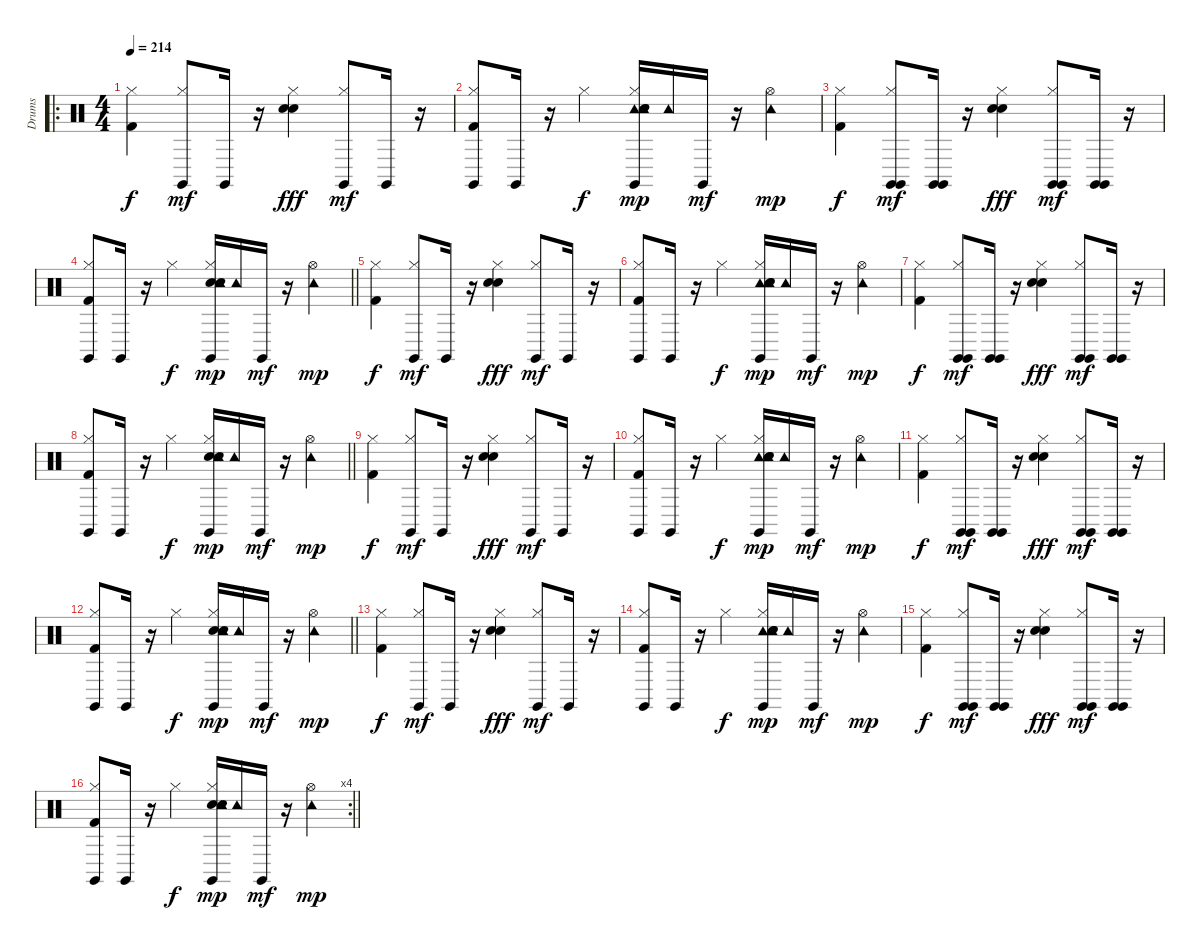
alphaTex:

\track ("Drums" "Drums") {instrument percussion}
\staff {score}
\articulation defaults
\ro
\ts (4 4)
\section ("" "")
\tempo 214
\clef neutral
\ks c
("Hi-Hat (closed)" "Kick (hit) 2").4{dy f} ("Claves (hit)" "Hi-Hat (closed)").8{dy mf} "Claves (hit)".16 r.16 ("Hand Clap (hit)" "Snare (hit) 2" "Hi-Hat (closed)").4{dy fff} ("Hi-Hat (closed)" "Claves (hit)").8{dy mf} "Claves (hit)".16 r.16 |
("Kick (hit) 2" "Claves (hit)" "Hi-Hat (closed)").8 "Claves (hit)".16 r.16 "Hi-Hat (closed)".4{dy f} ("Tambourine (hit)" "Claves (hit)" "Hi-Hat (closed)" "Hand Clap (hit)" "Snare (hit) 2" "Tambourine (hit)").16{dy mp} "Tambourine (hit)".16 "Claves (hit)".16{dy mf} r.16 ("Hi-Hat (open)" "Tambourine (hit)").4{dy mp} |
("Hi-Hat (closed)" "Kick (hit) 2").4{dy f} ("Claves (hit)" "Hi-Hat (closed)" "Claves (hit)").8{dy mf} ("Claves (hit)" "Claves (hit)").16 r.16 ("Hand Clap (hit)" "Hi-Hat (closed)" "Snare (hit) 2").4{dy fff} ("Claves (hit)" "Claves (hit)" "Hi-Hat (closed)").8{dy mf} ("Claves (hit)" "Claves (hit)").16 r.16 |
\barLineRight lightlight
("Hi-Hat (closed)" "Kick (hit) 2" "Claves (hit)").8 "Claves (hit)".16 r.16 "Hi-Hat (closed)".4{dy f} ("Hi-Hat (closed)" "Hand Clap (hit)" "Tambourine (hit)" "Snare (hit) 2" "Claves (hit)" "Tambourine (hit)").16{dy mp} "Tambourine (hit)".16 "Claves (hit)".16{dy mf} r.16 ("Tambourine (hit)" "Hi-Hat (open)").4{dy mp} |
("Hi-Hat (closed)" "Kick (hit) 2").4{dy f} ("Claves (hit)" "Hi-Hat (closed)").8{dy mf} "Claves (hit)".16 r.16 ("Hand Clap (hit)" "Snare (hit) 2" "Hi-Hat (closed)").4{dy fff} ("Hi-Hat (closed)" "Claves (hit)").8{dy mf} "Claves (hit)".16 r.16 |
("Kick (hit) 2" "Claves (hit)" "Hi-Hat (closed)").8 "Claves (hit)".16 r.16 "Hi-Hat (closed)".4{dy f} ("Tambourine (hit)" "Claves (hit)" "Hi-Hat (closed)" "Hand Clap (hit)" "Snare (hit) 2" "Tambourine (hit)").16{dy mp} "Tambourine (hit)".16 "Claves (hit)".16{dy mf} r.16 ("Hi-Hat (open)" "Tambourine (hit)").4{dy mp} |
("Hi-Hat (closed)" "Kick (hit) 2").4{dy f} ("Claves (hit)" "Hi-Hat (closed)" "Claves (hit)").8{dy mf} ("Claves (hit)" "Claves (hit)").16 r.16 ("Hand Clap (hit)" "Hi-Hat (closed)" "Snare (hit) 2").4{dy fff} ("Claves (hit)" "Claves (hit)" "Hi-Hat (closed)").8{dy mf} ("Claves (hit)" "Claves (hit)").16 r.16 |
\barLineRight lightlight
("Hi-Hat (closed)" "Kick (hit) 2" "Claves (hit)").8 "Claves (hit)".16 r.16 "Hi-Hat (closed)".4{dy f} ("Hi-Hat (closed)" "Hand Clap (hit)" "Tambourine (hit)" "Snare (hit) 2" "Claves (hit)" "Tambourine (hit)").16{dy mp} "Tambourine (hit)".16 "Claves (hit)".16{dy mf} r.16 ("Tambourine (hit)" "Hi-Hat (open)").4{dy mp} |
("Hi-Hat (closed)" "Kick (hit) 2").4{dy f} ("Claves (hit)" "Hi-Hat (closed)").8{dy mf} "Claves (hit)".16 r.16 ("Hand Clap (hit)" "Snare (hit) 2" "Hi-Hat (closed)").4{dy fff} ("Hi-Hat (closed)" "Claves (hit)").8{dy mf} "Claves (hit)".16 r.16 |
("Kick (hit) 2" "Claves (hit)" "Hi-Hat (closed)").8 "Claves (hit)".16 r.16 "Hi-Hat (closed)".4{dy f} ("Tambourine (hit)" "Claves (hit)" "Hi-Hat (closed)" "Hand Clap (hit)" "Snare (hit) 2" "Tambourine (hit)").16{dy mp} "Tambourine (hit)".16 "Claves (hit)".16{dy mf} r.16 ("Hi-Hat (open)" "Tambourine (hit)").4{dy mp} |
("Hi-Hat (closed)" "Kick (hit) 2").4{dy f} ("Claves (hit)" "Hi-Hat (closed)" "Claves (hit)").8{dy mf} ("Claves (hit)" "Claves (hit)").16 r.16 ("Hand Clap (hit)" "Hi-Hat (closed)" "Snare (hit) 2").4{dy fff} ("Claves (hit)" "Claves (hit)" "Hi-Hat (closed)").8{dy mf} ("Claves (hit)" "Claves (hit)").16 r.16 |
\barLineRight lightlight
("Hi-Hat (closed)" "Kick (hit) 2" "Claves (hit)").8 "Claves (hit)".16 r.16 "Hi-Hat (closed)".4{dy f} ("Hi-Hat (closed)" "Hand Clap (hit)" "Tambourine (hit)" "Snare (hit) 2" "Claves (hit)" "Tambourine (hit)").16{dy mp} "Tambourine (hit)".16 "Claves (hit)".16{dy mf} r.16 ("Tambourine (hit)" "Hi-Hat (open)").4{dy mp} |
("Hi-Hat (closed)" "Kick (hit) 2").4{dy f} ("Claves (hit)" "Hi-Hat (closed)").8{dy mf} "Claves (hit)".16 r.16 ("Hand Clap (hit)" "Snare (hit) 2" "Hi-Hat (closed)").4{dy fff} ("Hi-Hat (closed)" "Claves (hit)").8{dy mf} "Claves (hit)".16 r.16 |
("Kick (hit) 2" "Claves (hit)" "Hi-Hat (closed)").8 "Claves (hit)".16 r.16 "Hi-Hat (closed)".4{dy f} ("Tambourine (hit)" "Claves (hit)" "Hi-Hat (closed)" "Hand Clap (hit)" "Snare (hit) 2" "Tambourine (hit)").16{dy mp} "Tambourine (hit)".16 "Claves (hit)".16{dy mf} r.16 ("Hi-Hat (open)" "Tambourine (hit)").4{dy mp} |
("Hi-Hat (closed)" "Kick (hit) 2").4{dy f} ("Claves (hit)" "Hi-Hat (closed)" "Claves (hit)").8{dy mf} ("Claves (hit)" "Claves (hit)").16 r.16 ("Hand Clap (hit)" "Hi-Hat (closed)" "Snare (hit) 2").4{dy fff} ("Claves (hit)" "Claves (hit)" "Hi-Hat (closed)").8{dy mf} ("Claves (hit)" "Claves (hit)").16 r.16 |
\rc 4
\barLineRight lightlight
("Hi-Hat (closed)" "Kick (hit) 2" "Claves (hit)").8 "Claves (hit)".16 r.16 "Hi-Hat (closed)".4{dy f} ("Hi-Hat (closed)" "Hand Clap (hit)" "Tambourine (hit)" "Snare (hit) 2" "Claves (hit)" "Tambourine (hit)").16{dy mp} "Tambourine (hit)".16 "Claves (hit)".16{dy mf} r.16 ("Tambourine (hit)" "Hi-Hat (open)").4{dy mp}
